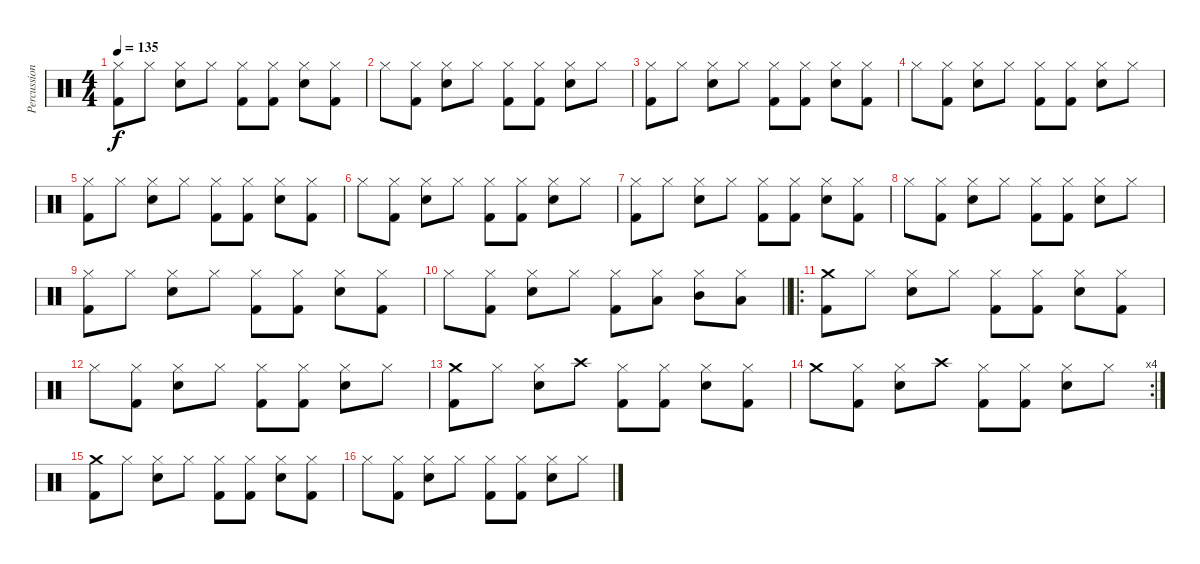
\track ("Percussion" "Percussion") {instrument percussion}
\staff {score}
\articulation defaults
\ts (4 4)
\tempo 135
\clef neutral
\ks c
("Hi-Hat (closed)" "Kick (hit) 2").8{dy f} "Hi-Hat (closed)".8 ("Hi-Hat (closed)" "Snare (hit) 2").8 "Hi-Hat (closed)".8 ("Hi-Hat (closed)" "Kick (hit) 2").8 ("Hi-Hat (closed)" "Kick (hit) 2").8 ("Hi-Hat (closed)" "Snare (hit) 2").8 ("Hi-Hat (closed)" "Kick (hit) 2").8 |
"Hi-Hat (closed)".8 ("Hi-Hat (closed)" "Kick (hit) 2").8 ("Hi-Hat (closed)" "Snare (hit) 2").8 "Hi-Hat (closed)".8 ("Hi-Hat (closed)" "Kick (hit) 2").8 ("Hi-Hat (closed)" "Kick (hit) 2").8 ("Hi-Hat (closed)" "Snare (hit) 2").8 "Hi-Hat (closed)".8 |
("Hi-Hat (closed)" "Kick (hit) 2").8 "Hi-Hat (closed)".8 ("Hi-Hat (closed)" "Snare (hit) 2").8 "Hi-Hat (closed)".8 ("Hi-Hat (closed)" "Kick (hit) 2").8 ("Hi-Hat (closed)" "Kick (hit) 2").8 ("Hi-Hat (closed)" "Snare (hit) 2").8 ("Hi-Hat (closed)" "Kick (hit) 2").8 |
"Hi-Hat (closed)".8 ("Hi-Hat (closed)" "Kick (hit) 2").8 ("Hi-Hat (closed)" "Snare (hit) 2").8 "Hi-Hat (closed)".8 ("Hi-Hat (closed)" "Kick (hit) 2").8 ("Hi-Hat (closed)" "Kick (hit) 2").8 ("Hi-Hat (closed)" "Snare (hit) 2").8 "Hi-Hat (closed)".8 |
("Hi-Hat (closed)" "Kick (hit) 2").8 "Hi-Hat (closed)".8 ("Hi-Hat (closed)" "Snare (hit) 2").8 "Hi-Hat (closed)".8 ("Hi-Hat (closed)" "Kick (hit) 2").8 ("Hi-Hat (closed)" "Kick (hit) 2").8 ("Hi-Hat (closed)" "Snare (hit) 2").8 ("Hi-Hat (closed)" "Kick (hit) 2").8 |
"Hi-Hat (closed)".8 ("Hi-Hat (closed)" "Kick (hit) 2").8 ("Hi-Hat (closed)" "Snare (hit) 2").8 "Hi-Hat (closed)".8 ("Hi-Hat (closed)" "Kick (hit) 2").8 ("Hi-Hat (closed)" "Kick (hit) 2").8 ("Hi-Hat (closed)" "Snare (hit) 2").8 "Hi-Hat (closed)".8 |
("Hi-Hat (closed)" "Kick (hit) 2").8 "Hi-Hat (closed)".8 ("Hi-Hat (closed)" "Snare (hit) 2").8 "Hi-Hat (closed)".8 ("Hi-Hat (closed)" "Kick (hit) 2").8 ("Hi-Hat (closed)" "Kick (hit) 2").8 ("Hi-Hat (closed)" "Snare (hit) 2").8 ("Hi-Hat (closed)" "Kick (hit) 2").8 |
"Hi-Hat (closed)".8 ("Hi-Hat (closed)" "Kick (hit) 2").8 ("Hi-Hat (closed)" "Snare (hit) 2").8 "Hi-Hat (closed)".8 ("Hi-Hat (closed)" "Kick (hit) 2").8 ("Hi-Hat (closed)" "Kick (hit) 2").8 ("Hi-Hat (closed)" "Snare (hit) 2").8 "Hi-Hat (closed)".8 |
("Hi-Hat (closed)" "Kick (hit) 2").8{volume 13} "Hi-Hat (closed)".8 ("Hi-Hat (closed)" "Snare (hit) 2").8 "Hi-Hat (closed)".8 ("Hi-Hat (closed)" "Kick (hit) 2").8 ("Hi-Hat (closed)" "Kick (hit) 2").8 ("Hi-Hat (closed)" "Snare (hit) 2").8 ("Hi-Hat (closed)" "Kick (hit) 2").8 |
\barLineRight lightlight "Hi-Hat (closed)".8
("Hi-Hat (closed)" "Kick (hit) 2").8 ("Hi-Hat (closed)" "Snare (hit) 2").8 "Hi-Hat (closed)".8 ("Hi-Hat (closed)" "Kick (hit) 2").8 ("Hi-Hat (closed)" "Low Tom (hit)").8 ("Hi-Hat (closed)" "Mid Tom (hit)").8 ("Hi-Hat (closed)" "Low Tom (hit)").8 |
\ro
("Crash medium (hit)" "Kick (hit) 2").8 "Hi-Hat (closed)".8 ("Hi-Hat (closed)" "Snare (hit) 2").8 "Hi-Hat (closed)".8 ("Hi-Hat (closed)" "Kick (hit) 2").8 ("Hi-Hat (closed)" "Kick (hit) 2").8 ("Hi-Hat (closed)" "Snare (hit) 2").8 ("Hi-Hat (closed)" "Kick (hit) 2").8 |
"Hi-Hat (closed)".8 ("Hi-Hat (closed)" "Kick (hit) 2").8 ("Hi-Hat (closed)" "Snare (hit) 2").8 "Hi-Hat (closed)".8 ("Hi-Hat (closed)" "Kick (hit) 2").8 ("Hi-Hat (closed)" "Kick (hit) 2").8 ("Hi-Hat (closed)" "Snare (hit) 2").8 "Hi-Hat (closed)".8 |
("Crash medium (hit)" "Kick (hit) 2").8 "Hi-Hat (closed)".8 ("Hi-Hat (closed)" "Snare (hit) 2").8 "Crash high (hit)".8 ("Hi-Hat (closed)" "Kick (hit) 2").8 ("Hi-Hat (closed)" "Kick (hit) 2").8 ("Hi-Hat (closed)" "Snare (hit) 2").8 ("Hi-Hat (closed)" "Kick (hit) 2").8 |
\rc 4 "Crash medium (hit)".8
("Hi-Hat (closed)" "Kick (hit) 2").8 ("Hi-Hat (closed)" "Snare (hit) 2").8 "Crash high (hit)".8 ("Hi-Hat (closed)" "Kick (hit) 2").8 ("Hi-Hat (closed)" "Kick (hit) 2").8 ("Hi-Hat (closed)" "Snare (hit) 2").8 "Hi-Hat (closed)".8 |
("Crash medium (hit)" "Kick (hit) 2").8 "Hi-Hat (closed)".8 ("Hi-Hat (closed)" "Snare (hit) 2").8 "Hi-Hat (closed)".8 ("Hi-Hat (closed)" "Kick (hit) 2").8 ("Hi-Hat (closed)" "Kick (hit) 2").8 ("Hi-Hat (closed)" "Snare (hit) 2").8 ("Hi-Hat (closed)" "Kick (hit) 2").8 |
"Hi-Hat (closed)".8 ("Hi-Hat (closed)" "Kick (hit) 2").8 ("Hi-Hat (closed)" "Snare (hit) 2").8 "Hi-Hat (closed)".8 ("Hi-Hat (closed)" "Kick (hit) 2").8 ("Hi-Hat (closed)" "Kick (hit) 2").8 ("Hi-Hat (closed)" "Snare (hit) 2").8 "Hi-Hat (closed)".8
